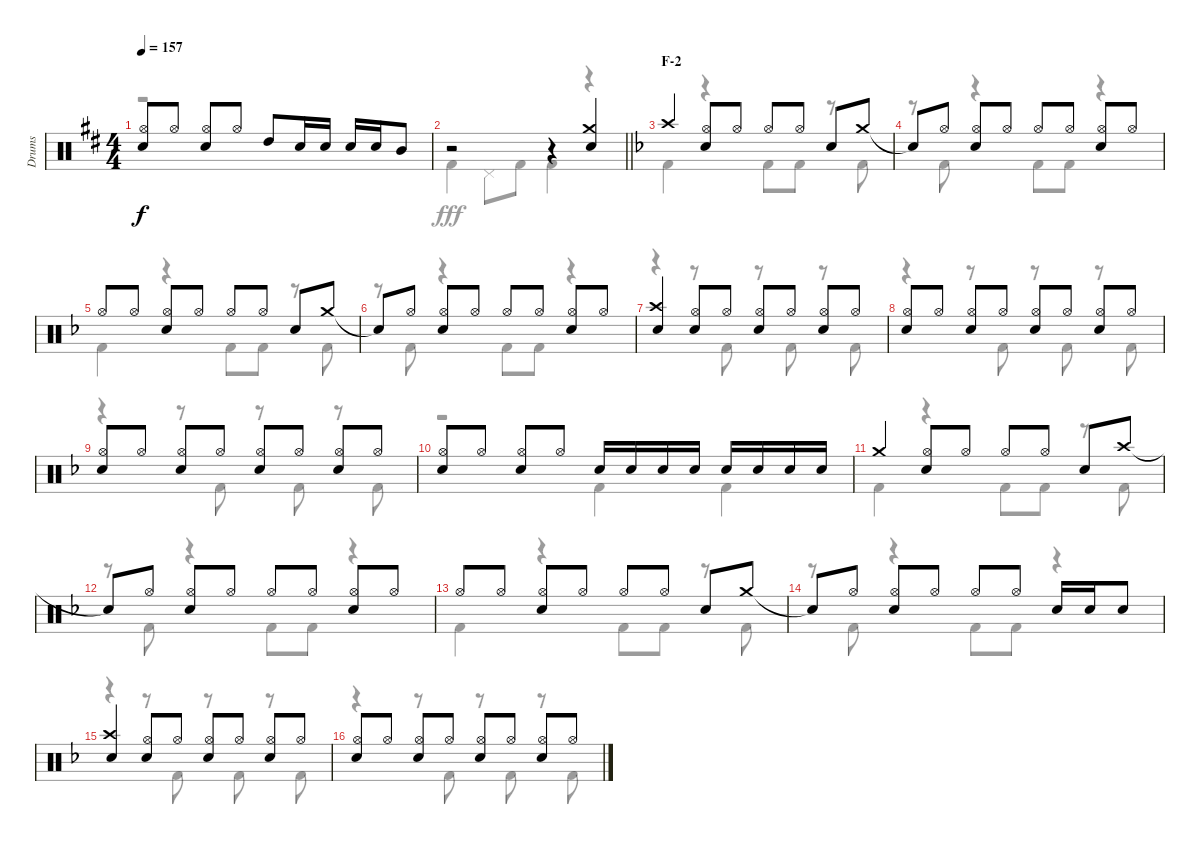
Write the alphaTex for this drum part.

\track ("Drums" "Drums") {instrument percussion}
\staff {score}
\articulation defaults
\voice
\ts (4 4)
\tempo 157
\clef neutral
\ks d
("Hi-Hat (open)" "Snare (hit) 2").8{dy f} "Hi-Hat (open)".8 ("Hi-Hat (open)" "Snare (hit) 2").8 "Hi-Hat (open)".8 "High Tom (hit)".8 "Snare (hit) 2".16 "Snare (hit) 2".16 "Snare (hit) 2".16 "Snare (hit) 2".16 "Mid Tom (hit)".8 |
\barLineRight lightlight
r.2 r.4 ("Crash medium (hit)" "Snare (hit) 2").4 |
\section ("" "F-2")
\ks f "Crash high (hit)".4
("Hi-Hat (open)" "Snare (hit) 2").8 "Hi-Hat (open)".8 "Hi-Hat (open)".8 "Hi-Hat (open)".8 "Snare (hit) 2".8 "Crash medium (hit)".8 |
"Snare (hit)"{t}.8 "Hi-Hat (open)".8 ("Hi-Hat (open)" "Snare (hit) 2").8 "Hi-Hat (open)".8 "Hi-Hat (open)".8 "Hi-Hat (open)".8 ("Hi-Hat (open)" "Snare (hit) 2").8 "Hi-Hat (open)".8 |
"Hi-Hat (open)".8 "Hi-Hat (open)".8 ("Hi-Hat (open)" "Snare (hit) 2").8 "Hi-Hat (open)".8 "Hi-Hat (open)".8 "Hi-Hat (open)".8 "Snare (hit) 2".8 "Crash medium (hit)".8 |
"Snare (hit)"{t}.8 "Hi-Hat (open)".8 ("Hi-Hat (open)" "Snare (hit) 2").8 "Hi-Hat (open)".8 "Hi-Hat (open)".8 "Hi-Hat (open)".8 ("Hi-Hat (open)" "Snare (hit) 2").8 "Hi-Hat (open)".8 |
("Crash high (hit)" "Snare (hit) 2").4 ("Hi-Hat (open)" "Snare (hit) 2").8 "Hi-Hat (open)".8 ("Hi-Hat (open)" "Snare (hit) 2").8 "Hi-Hat (open)".8 ("Hi-Hat (open)" "Snare (hit) 2").8 "Hi-Hat (open)".8 |
("Hi-Hat (open)" "Snare (hit) 2").8 "Hi-Hat (open)".8 ("Hi-Hat (open)" "Snare (hit) 2").8 "Hi-Hat (open)".8 ("Hi-Hat (open)" "Snare (hit) 2").8 "Hi-Hat (open)".8 ("Hi-Hat (open)" "Snare (hit) 2").8 "Hi-Hat (open)".8 |
("Hi-Hat (open)" "Snare (hit) 2").8 "Hi-Hat (open)".8 ("Hi-Hat (open)" "Snare (hit) 2").8 "Hi-Hat (open)".8 ("Hi-Hat (open)" "Snare (hit) 2").8 "Hi-Hat (open)".8 ("Hi-Hat (open)" "Snare (hit) 2").8 "Hi-Hat (open)".8 |
("Hi-Hat (open)" "Snare (hit) 2").8 "Hi-Hat (open)".8 ("Hi-Hat (open)" "Snare (hit) 2").8 "Hi-Hat (open)".8 "Snare (hit) 2".16 "Snare (hit) 2".16 "Snare (hit) 2".16 "Snare (hit) 2".16 "Snare (hit) 2".16 "Snare (hit) 2".16 "Snare (hit) 2".16 "Snare (hit) 2".16 |
"Crash medium (hit)".4 ("Hi-Hat (open)" "Snare (hit) 2").8 "Hi-Hat (open)".8 "Hi-Hat (open)".8 "Hi-Hat (open)".8 "Snare (hit) 2".8 "Crash high (hit)".8 |
"Snare (hit)"{t}.8 "Hi-Hat (open)".8 ("Hi-Hat (open)" "Snare (hit) 2").8 "Hi-Hat (open)".8 "Hi-Hat (open)".8 "Hi-Hat (open)".8 ("Hi-Hat (open)" "Snare (hit) 2").8 "Hi-Hat (open)".8 |
"Hi-Hat (open)".8 "Hi-Hat (open)".8 ("Hi-Hat (open)" "Snare (hit) 2").8 "Hi-Hat (open)".8 "Hi-Hat (open)".8 "Hi-Hat (open)".8 "Snare (hit) 2".8 "Crash medium (hit)".8 |
"Snare (hit)"{t}.8 "Hi-Hat (open)".8 ("Hi-Hat (open)" "Snare (hit) 2").8 "Hi-Hat (open)".8 "Hi-Hat (open)".8 "Hi-Hat (open)".8 "Snare (hit) 2".16 "Snare (hit) 2".16 "Snare (hit) 2".8 |
("Crash high (hit)" "Snare (hit) 2").4 ("Hi-Hat (open)" "Snare (hit) 2").8 "Hi-Hat (open)".8 ("Hi-Hat (open)" "Snare (hit) 2").8 "Hi-Hat (open)".8 ("Hi-Hat (open)" "Snare (hit) 2").8 "Hi-Hat (open)".8 |
("Hi-Hat (open)" "Snare (hit) 2").8 "Hi-Hat (open)".8 ("Hi-Hat (open)" "Snare (hit) 2").8 "Hi-Hat (open)".8 ("Hi-Hat (open)" "Snare (hit) 2").8 "Hi-Hat (open)".8 ("Hi-Hat (open)" "Snare (hit) 2").8 "Hi-Hat (open)".8
\voice
\clef neutral
\ottava regular
\simile none
\ks d
r.1{dy fff} |
\barLineRight lightlight "Kick (hit) 2".4 "Pedal Hi-Hat (hit)".8 "Kick (hit) 2".8 "Kick (hit) 2".4
r.4 |
\ks f "Kick (hit) 2".4
r.4 "Kick (hit) 2".8 "Kick (hit) 2".8 r.8 "Kick (hit) 2".8 |
r.8 "Kick (hit) 2".8 r.4 "Kick (hit) 2".8 "Kick (hit) 2".8 r.4 |
"Kick (hit) 2".4 r.4 "Kick (hit) 2".8 "Kick (hit) 2".8 r.8 "Kick (hit) 2".8 |
r.8 "Kick (hit) 2".8 r.4 "Kick (hit) 2".8 "Kick (hit) 2".8 r.4 |
r.4 r.8 "Kick (hit) 2".8 r.8 "Kick (hit) 2".8 r.8 "Kick (hit) 2".8 |
r.4 r.8 "Kick (hit) 2".8 r.8 "Kick (hit) 2".8 r.8 "Kick (hit) 2".8 |
r.4 r.8 "Kick (hit) 2".8 r.8 "Kick (hit) 2".8 r.8 "Kick (hit) 2".8 |
r.2 "Kick (hit) 2".4 "Kick (hit) 2".4 |
"Kick (hit) 2".4 r.4 "Kick (hit) 2".8 "Kick (hit) 2".8 r.8 "Kick (hit) 2".8 |
r.8 "Kick (hit) 2".8 r.4 "Kick (hit) 2".8 "Kick (hit) 2".8 r.4 |
"Kick (hit) 2".4 r.4 "Kick (hit) 2".8 "Kick (hit) 2".8 r.8 "Kick (hit) 2".8 |
r.8 "Kick (hit) 2".8 r.4 "Kick (hit) 2".8 "Kick (hit) 2".8 r.4 |
r.4 r.8 "Kick (hit) 2".8 r.8 "Kick (hit) 2".8 r.8 "Kick (hit) 2".8 |
r.4 r.8 "Kick (hit) 2".8 r.8 "Kick (hit) 2".8 r.8 "Kick (hit) 2".8
